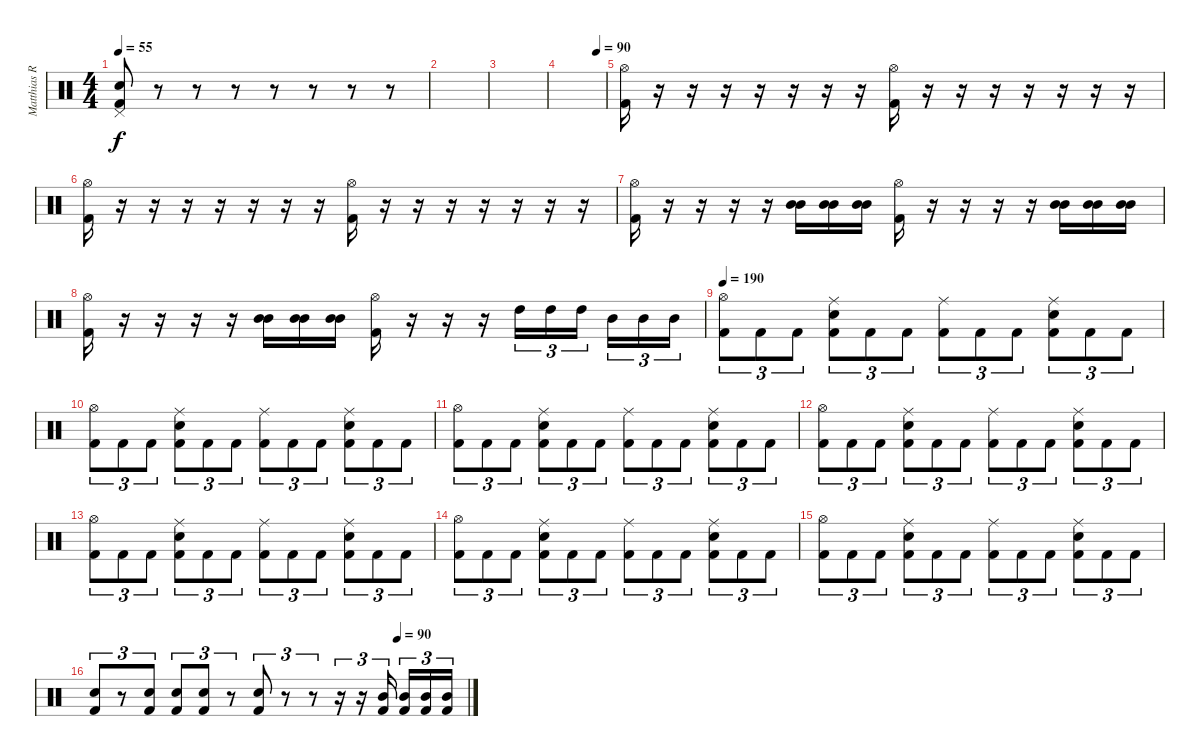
\track ("Matthias R." "Matthias R") {instrument percussion}
\staff {score}
\articulation defaults
\ts (4 4)
\tempo 55
\clef neutral
\ks c
("Kick (hit) 2" "Snare (hit) 2" "Pedal Hi-Hat (hit)").8{dy f} r.8 r.8 r.8 r.8 r.8 r.8 r.8 |
|
|
\tempo (90 0.8125)
|
("Kick (hit) 2" "Hi-Hat (open)").16 r.16 r.16 r.16 r.16 r.16 r.16 r.16 ("Kick (hit) 2" "Hi-Hat (open)").16 r.16 r.16 r.16 r.16 r.16 r.16 r.16 |
("Kick (hit) 2" "Hi-Hat (open)").16 r.16 r.16 r.16 r.16 r.16 r.16 r.16 ("Kick (hit) 2" "Hi-Hat (open)").16 r.16 r.16 r.16 r.16 r.16 r.16 r.16 |
("Kick (hit) 2" "Hi-Hat (open)").16 r.16 r.16 r.16 r.16 ("Mid Tom (hit)" "Mid Tom (hit)").16 ("Mid Tom (hit)" "Mid Tom (hit)").16 ("Mid Tom (hit)" "Mid Tom (hit)").16 ("Kick (hit) 2" "Hi-Hat (open)").16 r.16 r.16 r.16 r.16 ("Mid Tom (hit)" "Mid Tom (hit)").16 ("Mid Tom (hit)" "Mid Tom (hit)").16 ("Mid Tom (hit)" "Mid Tom (hit)").16 |
("Kick (hit) 2" "Hi-Hat (open)").16 r.16 r.16 r.16 r.16 ("Mid Tom (hit)" "Mid Tom (hit)").16 ("Mid Tom (hit)" "Mid Tom (hit)").16 ("Mid Tom (hit)" "Mid Tom (hit)").16 ("Kick (hit) 2" "Hi-Hat (open)").16 r.16 r.16 r.16 "High Tom (hit)".16{tu (3 2)} "High Tom (hit)".16{tu (3 2)} "High Tom (hit)".16{tu (3 2) beam splitsecondary} "Mid Tom (hit)".16{tu (3 2)} "Mid Tom (hit)".16{tu (3 2)} "Mid Tom (hit)".16{tu (3 2)} |
\tempo 190
("Kick (hit) 2" "Hi-Hat (open)").8{tu (3 2)} "Kick (hit) 2".8{tu (3 2)} "Kick (hit) 2".8{tu (3 2)} ("Kick (hit) 2" "Snare (hit) 2" "Ride (middle)").8{tu (3 2)} "Kick (hit) 2".8{tu (3 2)} "Kick (hit) 2".8{tu (3 2)} ("Kick (hit) 2" "Ride (middle)").8{tu (3 2)} "Kick (hit) 2".8{tu (3 2)} "Kick (hit) 2".8{tu (3 2)} ("Kick (hit) 2" "Snare (hit) 2" "Ride (middle)").8{tu (3 2)} "Kick (hit) 2".8{tu (3 2)} "Kick (hit) 2".8{tu (3 2)} |
("Kick (hit) 2" "Hi-Hat (open)").8{tu (3 2)} "Kick (hit) 2".8{tu (3 2)} "Kick (hit) 2".8{tu (3 2)} ("Kick (hit) 2" "Snare (hit) 2" "Ride (middle)").8{tu (3 2)} "Kick (hit) 2".8{tu (3 2)} "Kick (hit) 2".8{tu (3 2)} ("Kick (hit) 2" "Ride (middle)").8{tu (3 2)} "Kick (hit) 2".8{tu (3 2)} "Kick (hit) 2".8{tu (3 2)} ("Kick (hit) 2" "Snare (hit) 2" "Ride (middle)").8{tu (3 2)} "Kick (hit) 2".8{tu (3 2)} "Kick (hit) 2".8{tu (3 2)} |
("Kick (hit) 2" "Hi-Hat (open)").8{tu (3 2)} "Kick (hit) 2".8{tu (3 2)} "Kick (hit) 2".8{tu (3 2)} ("Kick (hit) 2" "Snare (hit) 2" "Ride (middle)").8{tu (3 2)} "Kick (hit) 2".8{tu (3 2)} "Kick (hit) 2".8{tu (3 2)} ("Kick (hit) 2" "Ride (middle)").8{tu (3 2)} "Kick (hit) 2".8{tu (3 2)} "Kick (hit) 2".8{tu (3 2)} ("Kick (hit) 2" "Snare (hit) 2" "Ride (middle)").8{tu (3 2)} "Kick (hit) 2".8{tu (3 2)} "Kick (hit) 2".8{tu (3 2)} |
("Kick (hit) 2" "Hi-Hat (open)").8{tu (3 2)} "Kick (hit) 2".8{tu (3 2)} "Kick (hit) 2".8{tu (3 2)} ("Kick (hit) 2" "Snare (hit) 2" "Ride (middle)").8{tu (3 2)} "Kick (hit) 2".8{tu (3 2)} "Kick (hit) 2".8{tu (3 2)} ("Kick (hit) 2" "Ride (middle)").8{tu (3 2)} "Kick (hit) 2".8{tu (3 2)} "Kick (hit) 2".8{tu (3 2)} ("Kick (hit) 2" "Snare (hit) 2" "Ride (middle)").8{tu (3 2)} "Kick (hit) 2".8{tu (3 2)} "Kick (hit) 2".8{tu (3 2)} |
("Kick (hit) 2" "Hi-Hat (open)").8{tu (3 2)} "Kick (hit) 2".8{tu (3 2)} "Kick (hit) 2".8{tu (3 2)} ("Kick (hit) 2" "Snare (hit) 2" "Ride (middle)").8{tu (3 2)} "Kick (hit) 2".8{tu (3 2)} "Kick (hit) 2".8{tu (3 2)} ("Kick (hit) 2" "Ride (middle)").8{tu (3 2)} "Kick (hit) 2".8{tu (3 2)} "Kick (hit) 2".8{tu (3 2)} ("Kick (hit) 2" "Snare (hit) 2" "Ride (middle)").8{tu (3 2)} "Kick (hit) 2".8{tu (3 2)} "Kick (hit) 2".8{tu (3 2)} |
("Kick (hit) 2" "Hi-Hat (open)").8{tu (3 2)} "Kick (hit) 2".8{tu (3 2)} "Kick (hit) 2".8{tu (3 2)} ("Kick (hit) 2" "Snare (hit) 2" "Ride (middle)").8{tu (3 2)} "Kick (hit) 2".8{tu (3 2)} "Kick (hit) 2".8{tu (3 2)} ("Kick (hit) 2" "Ride (middle)").8{tu (3 2)} "Kick (hit) 2".8{tu (3 2)} "Kick (hit) 2".8{tu (3 2)} ("Kick (hit) 2" "Snare (hit) 2" "Ride (middle)").8{tu (3 2)} "Kick (hit) 2".8{tu (3 2)} "Kick (hit) 2".8{tu (3 2)} |
("Kick (hit) 2" "Hi-Hat (open)").8{tu (3 2)} "Kick (hit) 2".8{tu (3 2)} "Kick (hit) 2".8{tu (3 2)} ("Kick (hit) 2" "Snare (hit) 2" "Ride (middle)").8{tu (3 2)} "Kick (hit) 2".8{tu (3 2)} "Kick (hit) 2".8{tu (3 2)} ("Kick (hit) 2" "Ride (middle)").8{tu (3 2)} "Kick (hit) 2".8{tu (3 2)} "Kick (hit) 2".8{tu (3 2)} ("Kick (hit) 2" "Snare (hit) 2" "Ride (middle)").8{tu (3 2)} "Kick (hit) 2".8{tu (3 2)} "Kick (hit) 2".8{tu (3 2)} |
\tempo (90 0.8125)
("Kick (hit) 2" "Snare (hit) 2").8{tu (3 2)} r.8{tu (3 2)} ("Kick (hit) 2" "Snare (hit) 2").8{tu (3 2)} ("Kick (hit) 2" "Snare (hit) 2").8{tu (3 2)} ("Kick (hit) 2" "Snare (hit) 2").8{tu (3 2)} r.8{tu (3 2)} ("Kick (hit) 2" "Snare (hit) 2").8{tu (3 2)} r.8{tu (3 2)} r.8{tu (3 2)} r.16{tu (3 2)} r.16{tu (3 2)} ("Kick (hit) 2" "Mid Tom (hit)").16{tu (3 2) beam splitsecondary} ("Kick (hit) 2" "Mid Tom (hit)").16{tu (3 2)} ("Kick (hit) 2" "Mid Tom (hit)").16{tu (3 2)} ("Kick (hit) 2" "Mid Tom (hit)").16{tu (3 2)}
